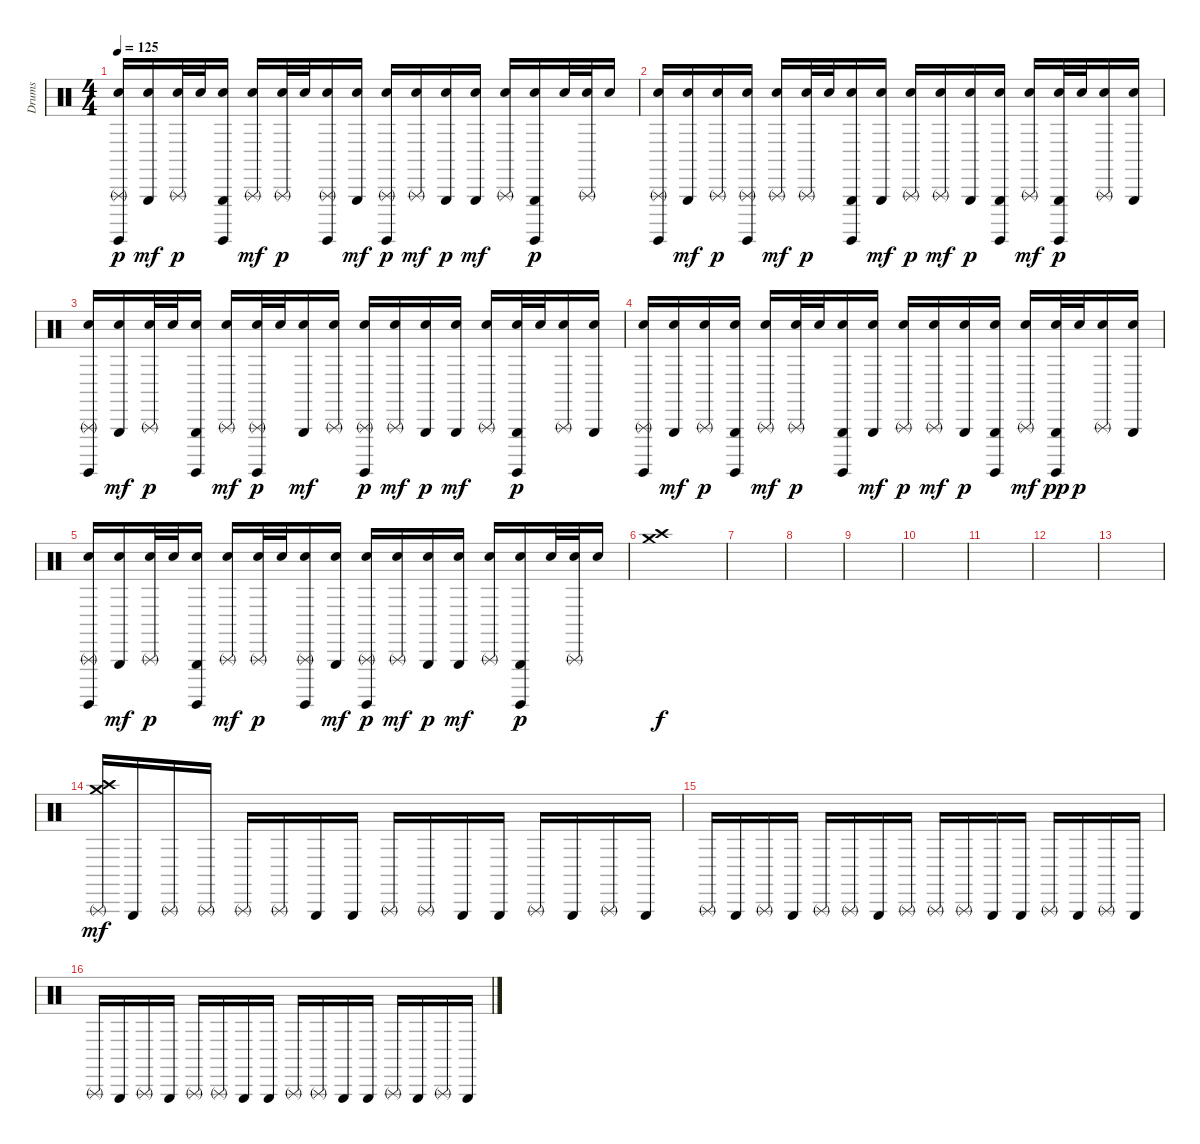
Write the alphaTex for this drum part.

\track ("Drums" "Drums") {instrument percussion}
\staff {score}
\articulation defaults
\ts (4 4)
\tempo 125
\clef neutral
\ks c
("Triangle (rnute)" "Snare (hit) 2" "Surdo (hit)").16{dy p} ("Triangle (hit)" "Snare (hit) 2").16{dy mf} ("Triangle (rnute)" "Snare (hit) 2").32{dy p} "Snare (hit) 2".32 ("Triangle (hit)" "Snare (hit) 2" "Surdo (hit)").16 ("Triangle (rnute)" "Snare (hit) 2").16{dy mf} ("Triangle (rnute)" "Snare (hit) 2").32{dy p} "Snare (hit) 2".32 ("Triangle (rnute)" "Snare (hit) 2" "Surdo (hit)").16 ("Triangle (hit)" "Snare (hit) 2").16{dy mf} ("Triangle (rnute)" "Snare (hit) 2" "Surdo (hit)").16{dy p} ("Triangle (rnute)" "Snare (hit) 2").16{dy mf} ("Triangle (hit)" "Snare (hit) 2").16{dy p} ("Triangle (hit)" "Snare (hit) 2").16{dy mf} ("Triangle (rnute)" "Snare (hit) 2").16 ("Triangle (hit)" "Snare (hit) 2" "Surdo (hit)").16{dy p} "Snare (hit) 2".32 ("Triangle (rnute)" "Snare (hit) 2").32 "Snare (hit) 2".16 |
("Triangle (rnute)" "Snare (hit) 2" "Surdo (hit)").16 ("Triangle (hit)" "Snare (hit) 2").16{dy mf} ("Triangle (rnute)" "Snare (hit) 2").16{dy p} ("Triangle (rnute)" "Snare (hit) 2" "Surdo (hit)").16 ("Triangle (rnute)" "Snare (hit) 2").16{dy mf} ("Triangle (rnute)" "Snare (hit) 2").32{dy p} "Snare (hit) 2".32 ("Triangle (hit)" "Snare (hit) 2" "Surdo (hit)").16 ("Triangle (hit)" "Snare (hit) 2").16{dy mf} ("Triangle (rnute)" "Snare (hit) 2").16{dy p} ("Triangle (rnute)" "Snare (hit) 2").16{dy mf} ("Triangle (hit)" "Snare (hit) 2").16{dy p} ("Triangle (hit)" "Snare (hit) 2" "Surdo (hit)").16 ("Triangle (rnute)" "Snare (hit) 2").16{dy mf} ("Triangle (hit)" "Snare (hit) 2" "Surdo (hit)").32{dy p} "Snare (hit) 2".32 ("Triangle (rnute)" "Snare (hit) 2").16 ("Triangle (hit)" "Snare (hit) 2").16 |
("Triangle (rnute)" "Snare (hit) 2" "Surdo (hit)").16 ("Triangle (hit)" "Snare (hit) 2").16{dy mf} ("Triangle (rnute)" "Snare (hit) 2").32{dy p} "Snare (hit) 2".32 ("Triangle (hit)" "Snare (hit) 2" "Surdo (hit)").16 ("Triangle (rnute)" "Snare (hit) 2").16{dy mf} ("Triangle (rnute)" "Snare (hit) 2" "Surdo (hit)").32{dy p} "Snare (hit) 2".32 ("Triangle (hit)" "Snare (hit) 2").16{dy mf} ("Triangle (rnute)" "Snare (hit) 2").16 ("Triangle (rnute)" "Snare (hit) 2" "Surdo (hit)").16{dy p} ("Triangle (rnute)" "Snare (hit) 2").16{dy mf} ("Triangle (hit)" "Snare (hit) 2").16{dy p} ("Triangle (hit)" "Snare (hit) 2").16{dy mf} ("Triangle (rnute)" "Snare (hit) 2").16 ("Triangle (hit)" "Snare (hit) 2" "Surdo (hit)").32{dy p} "Snare (hit) 2".32 ("Triangle (rnute)" "Snare (hit) 2").16 ("Triangle (hit)" "Snare (hit) 2").16 |
("Triangle (rnute)" "Snare (hit) 2" "Surdo (hit)").16 ("Triangle (hit)" "Snare (hit) 2").16{dy mf} ("Triangle (rnute)" "Snare (hit) 2").16{dy p} ("Triangle (hit)" "Snare (hit) 2" "Surdo (hit)").16 ("Triangle (rnute)" "Snare (hit) 2").16{dy mf} ("Triangle (rnute)" "Snare (hit) 2").32{dy p} "Snare (hit) 2".32 ("Triangle (hit)" "Snare (hit) 2" "Surdo (hit)").16 ("Triangle (hit)" "Snare (hit) 2").16{dy mf} ("Triangle (rnute)" "Snare (hit) 2").16{dy p} ("Triangle (rnute)" "Snare (hit) 2").16{dy mf} ("Triangle (hit)" "Snare (hit) 2").16{dy p} ("Triangle (hit)" "Snare (hit) 2" "Surdo (hit)").16 ("Triangle (rnute)" "Snare (hit) 2").16{dy mf} ("Triangle (hit)" "Snare (hit) 2" "Surdo (hit)").32{dy pp} "Snare (hit) 2".32{dy p} ("Triangle (rnute)" "Snare (hit) 2").16 ("Triangle (hit)" "Snare (hit) 2").16 |
("Triangle (rnute)" "Snare (hit) 2" "Surdo (hit)").16 ("Triangle (hit)" "Snare (hit) 2").16{dy mf} ("Triangle (rnute)" "Snare (hit) 2").32{dy p} "Snare (hit) 2".32 ("Triangle (hit)" "Snare (hit) 2" "Surdo (hit)").16 ("Triangle (rnute)" "Snare (hit) 2").16{dy mf} ("Triangle (rnute)" "Snare (hit) 2").32{dy p} "Snare (hit) 2".32 ("Triangle (rnute)" "Snare (hit) 2" "Surdo (hit)").16 ("Triangle (hit)" "Snare (hit) 2").16{dy mf} ("Triangle (rnute)" "Snare (hit) 2" "Surdo (hit)").16{dy p} ("Triangle (rnute)" "Snare (hit) 2").16{dy mf} ("Triangle (hit)" "Snare (hit) 2").16{dy p} ("Triangle (hit)" "Snare (hit) 2").16{dy mf} ("Triangle (rnute)" "Snare (hit) 2").16 ("Triangle (hit)" "Snare (hit) 2" "Surdo (hit)").16{dy p} "Snare (hit) 2".32 ("Triangle (rnute)" "Snare (hit) 2").32 "Snare (hit) 2".16 |
("Crash medium (hit)" "Crash high (hit)").1{dy f} |
|
|
|
|
|
|
|
("Triangle (rnute)" "Crash high (hit)" "Crash medium (hit)").16{dy mf} "Triangle (hit)".16 "Triangle (rnute)".16 "Triangle (rnute)".16 "Triangle (rnute)".16 "Triangle (rnute)".16 "Triangle (hit)".16 "Triangle (hit)".16 "Triangle (rnute)".16 "Triangle (rnute)".16 "Triangle (hit)".16 "Triangle (hit)".16 "Triangle (rnute)".16 "Triangle (hit)".16 "Triangle (rnute)".16 "Triangle (hit)".16 |
"Triangle (rnute)".16 "Triangle (hit)".16 "Triangle (rnute)".16 "Triangle (hit)".16 "Triangle (rnute)".16 "Triangle (rnute)".16 "Triangle (hit)".16 "Triangle (rnute)".16 "Triangle (rnute)".16 "Triangle (rnute)".16 "Triangle (hit)".16 "Triangle (hit)".16 "Triangle (rnute)".16 "Triangle (hit)".16 "Triangle (rnute)".16 "Triangle (hit)".16 |
"Triangle (rnute)".16 "Triangle (hit)".16 "Triangle (rnute)".16 "Triangle (hit)".16 "Triangle (rnute)".16 "Triangle (rnute)".16 "Triangle (hit)".16 "Triangle (hit)".16 "Triangle (rnute)".16 "Triangle (rnute)".16 "Triangle (hit)".16 "Triangle (hit)".16 "Triangle (rnute)".16 "Triangle (hit)".16 "Triangle (rnute)".16 "Triangle (hit)".16
